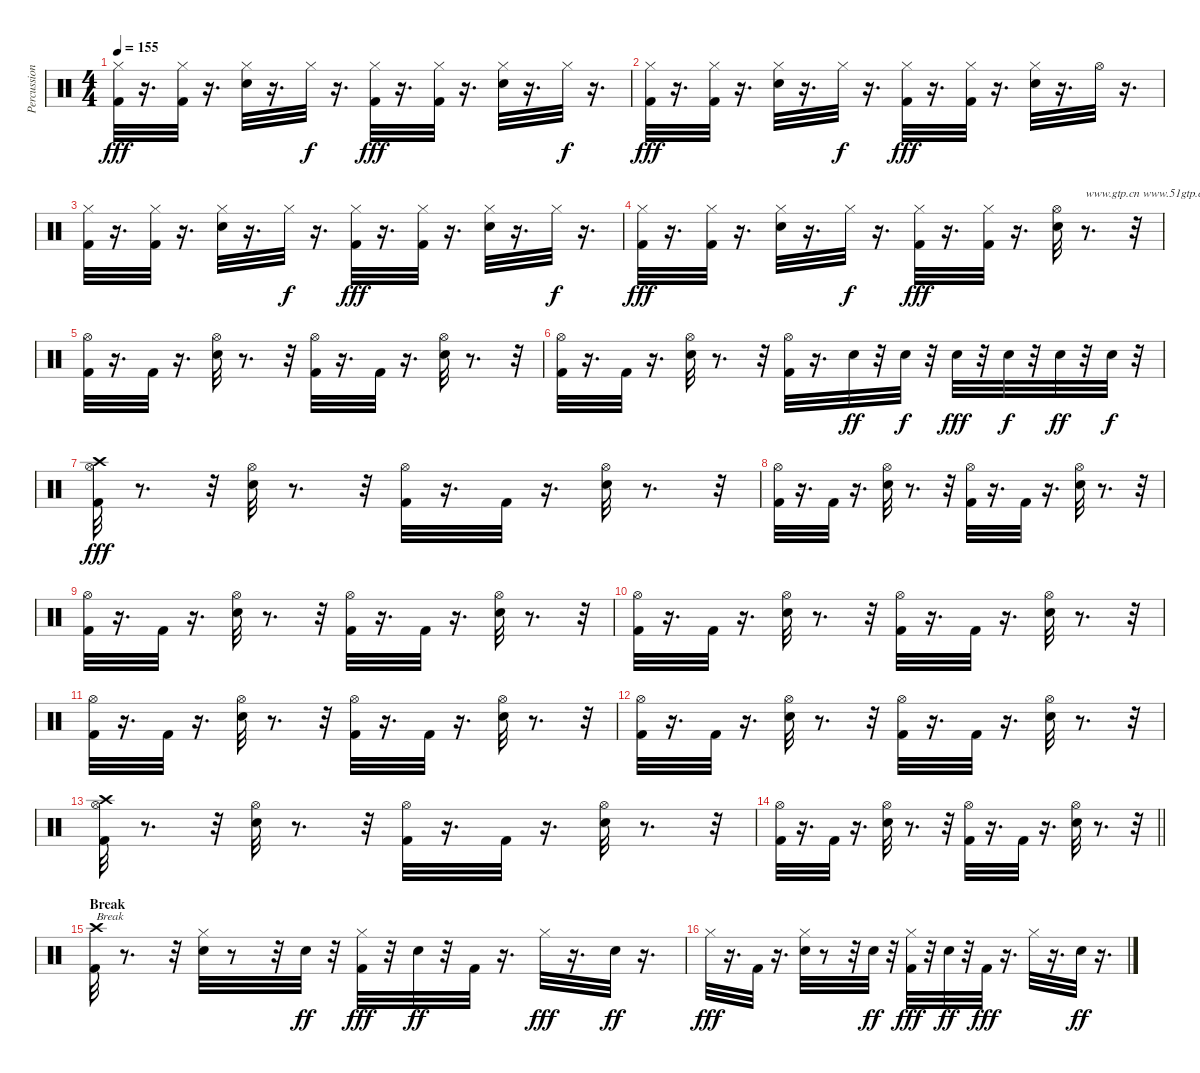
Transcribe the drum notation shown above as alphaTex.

\track ("Percussions" "Percussion") {instrument percussion}
\staff {score}
\articulation defaults
\ts (4 4)
\tempo 155
\clef neutral
\ks c
("Hi-Hat (closed)" "Kick (hit) 2").32{dy fff} r.16{d} ("Kick (hit) 2" "Hi-Hat (closed)").32 r.16{d} ("Hi-Hat (closed)" "Snare (hit) 2").32 r.16{d} "Hi-Hat (closed)".32{dy f} r.16{d} ("Hi-Hat (closed)" "Kick (hit) 2").32{dy fff} r.16{d} ("Hi-Hat (closed)" "Kick (hit) 2").32 r.16{d} ("Hi-Hat (closed)" "Snare (hit) 2").32 r.16{d} "Hi-Hat (closed)".32{dy f} r.16{d} |
("Hi-Hat (closed)" "Kick (hit) 2").32{dy fff} r.16{d} ("Kick (hit) 2" "Hi-Hat (closed)").32 r.16{d} ("Hi-Hat (closed)" "Snare (hit) 2").32 r.16{d} "Hi-Hat (closed)".32{dy f} r.16{d} ("Hi-Hat (closed)" "Kick (hit) 2").32{dy fff} r.16{d} ("Hi-Hat (closed)" "Kick (hit) 2").32 r.16{d} ("Hi-Hat (closed)" "Snare (hit) 2").32 r.16{d} "Hi-Hat (open)".32 r.16{d} |
("Hi-Hat (closed)" "Kick (hit) 2").32 r.16{d} ("Kick (hit) 2" "Hi-Hat (closed)").32 r.16{d} ("Hi-Hat (closed)" "Snare (hit) 2").32 r.16{d} "Hi-Hat (closed)".32{dy f} r.16{d} ("Hi-Hat (closed)" "Kick (hit) 2").32{dy fff} r.16{d} ("Hi-Hat (closed)" "Kick (hit) 2").32 r.16{d} ("Hi-Hat (closed)" "Snare (hit) 2").32 r.16{d} "Hi-Hat (closed)".32{dy f} r.16{d} |
("Hi-Hat (closed)" "Kick (hit) 2").32{dy fff} r.16{d} ("Kick (hit) 2" "Hi-Hat (closed)").32 r.16{d} ("Hi-Hat (closed)" "Snare (hit) 2").32 r.16{d} "Hi-Hat (closed)".32{dy f} r.16{d} ("Hi-Hat (closed)" "Kick (hit) 2").32{dy fff} r.16{d} ("Hi-Hat (closed)" "Kick (hit) 2").32 r.16{d} ("Hi-Hat (open)" "Snare (hit) 2").32 r.8{d txt "www.gtp.cn www.51gtp.com联合为您提供优秀的GTP!"} r.32 |
("Hi-Hat (open)" "Kick (hit) 2").32 r.16{d} "Kick (hit) 2".32 r.16{d} ("Hi-Hat (open)" "Snare (hit) 2").32 r.8{d} r.32 ("Hi-Hat (open)" "Kick (hit) 2").32 r.16{d} "Kick (hit) 2".32 r.16{d} ("Hi-Hat (open)" "Snare (hit) 2").32 r.8{d} r.32 |
("Hi-Hat (open)" "Kick (hit) 2").32 r.16{d} "Kick (hit) 2".32 r.16{d} ("Hi-Hat (open)" "Snare (hit) 2").32 r.8{d} r.32 ("Hi-Hat (open)" "Kick (hit) 2").32 r.16{d} "Snare (hit) 2".32{dy ff} r.32 "Snare (hit) 2".32{dy f} r.32 "Snare (hit) 2".32{dy fff} r.32 "Snare (hit) 2".32{dy f} r.32 "Snare (hit) 2".32{dy ff} r.32 "Snare (hit) 2".32{dy f} r.32 |
("Hi-Hat (open)" "Crash high (hit)" "Kick (hit) 2").32{dy fff} r.8{d} r.32 ("Hi-Hat (open)" "Snare (hit) 2").32 r.8{d} r.32 ("Hi-Hat (open)" "Kick (hit) 2").32 r.16{d} "Kick (hit) 2".32 r.16{d} ("Hi-Hat (open)" "Snare (hit) 2").32 r.8{d} r.32 |
("Hi-Hat (open)" "Kick (hit) 2").32 r.16{d} "Kick (hit) 2".32 r.16{d} ("Hi-Hat (open)" "Snare (hit) 2").32 r.8{d} r.32 ("Hi-Hat (open)" "Kick (hit) 2").32 r.16{d} "Kick (hit) 2".32 r.16{d} ("Hi-Hat (open)" "Snare (hit) 2").32 r.8{d} r.32 |
("Hi-Hat (open)" "Kick (hit) 2").32 r.16{d} "Kick (hit) 2".32 r.16{d} ("Hi-Hat (open)" "Snare (hit) 2").32 r.8{d} r.32 ("Hi-Hat (open)" "Kick (hit) 2").32 r.16{d} "Kick (hit) 2".32 r.16{d} ("Hi-Hat (open)" "Snare (hit) 2").32 r.8{d} r.32 |
("Hi-Hat (open)" "Kick (hit) 2").32 r.16{d} "Kick (hit) 2".32 r.16{d} ("Hi-Hat (open)" "Snare (hit) 2").32 r.8{d} r.32 ("Hi-Hat (open)" "Kick (hit) 2").32 r.16{d} "Kick (hit) 2".32 r.16{d} ("Hi-Hat (open)" "Snare (hit) 2").32 r.8{d} r.32 |
("Hi-Hat (open)" "Kick (hit) 2").32 r.16{d} "Kick (hit) 2".32 r.16{d} ("Hi-Hat (open)" "Snare (hit) 2").32 r.8{d} r.32 ("Hi-Hat (open)" "Kick (hit) 2").32 r.16{d} "Kick (hit) 2".32 r.16{d} ("Hi-Hat (open)" "Snare (hit) 2").32 r.8{d} r.32 |
("Hi-Hat (open)" "Kick (hit) 2").32 r.16{d} "Kick (hit) 2".32 r.16{d} ("Hi-Hat (open)" "Snare (hit) 2").32 r.8{d} r.32 ("Hi-Hat (open)" "Kick (hit) 2").32 r.16{d} "Kick (hit) 2".32 r.16{d} ("Hi-Hat (open)" "Snare (hit) 2").32 r.8{d} r.32 |
("Hi-Hat (open)" "Crash high (hit)" "Kick (hit) 2").32 r.8{d} r.32 ("Hi-Hat (open)" "Snare (hit) 2").32 r.8{d} r.32 ("Hi-Hat (open)" "Kick (hit) 2").32 r.16{d} "Kick (hit) 2".32 r.16{d} ("Hi-Hat (open)" "Snare (hit) 2").32 r.8{d} r.32 |
\barLineRight lightlight
("Hi-Hat (open)" "Kick (hit) 2").32 r.16{d} "Kick (hit) 2".32 r.16{d} ("Hi-Hat (open)" "Snare (hit) 2").32 r.8{d} r.32 ("Hi-Hat (open)" "Kick (hit) 2").32 r.16{d} "Kick (hit) 2".32 r.16{d} ("Hi-Hat (open)" "Snare (hit) 2").32 r.8{d} r.32 |
\section ("" "Break")
("Crash high (hit)" "Kick (hit) 2").32{txt "Break"} r.8{d} r.32 ("Hi-Hat (closed)" "Snare (hit) 2").32 r.8 r.32 "Snare (hit) 2".32{dy ff} r.32 ("Kick (hit) 2" "Hi-Hat (closed)").32{dy fff} r.32 "Snare (hit) 2".32{dy ff} r.32 "Kick (hit) 2".32 r.16{d} "Hi-Hat (closed)".32{dy fff} r.16{d} "Snare (hit) 2".32{dy ff} r.16{d} |
"Hi-Hat (closed)".32{dy fff} r.16{d} "Kick (hit) 2".32 r.16{d} ("Snare (hit) 2" "Hi-Hat (closed)").32 r.8 r.32 "Snare (hit) 2".32{dy ff} r.32 ("Kick (hit) 2" "Hi-Hat (closed)").32{dy fff} r.32 "Snare (hit) 2".32{dy ff} r.32 "Kick (hit) 2".32{dy fff} r.16{d} "Hi-Hat (closed)".32 r.16{d} "Snare (hit) 2".32{dy ff} r.16{d}
